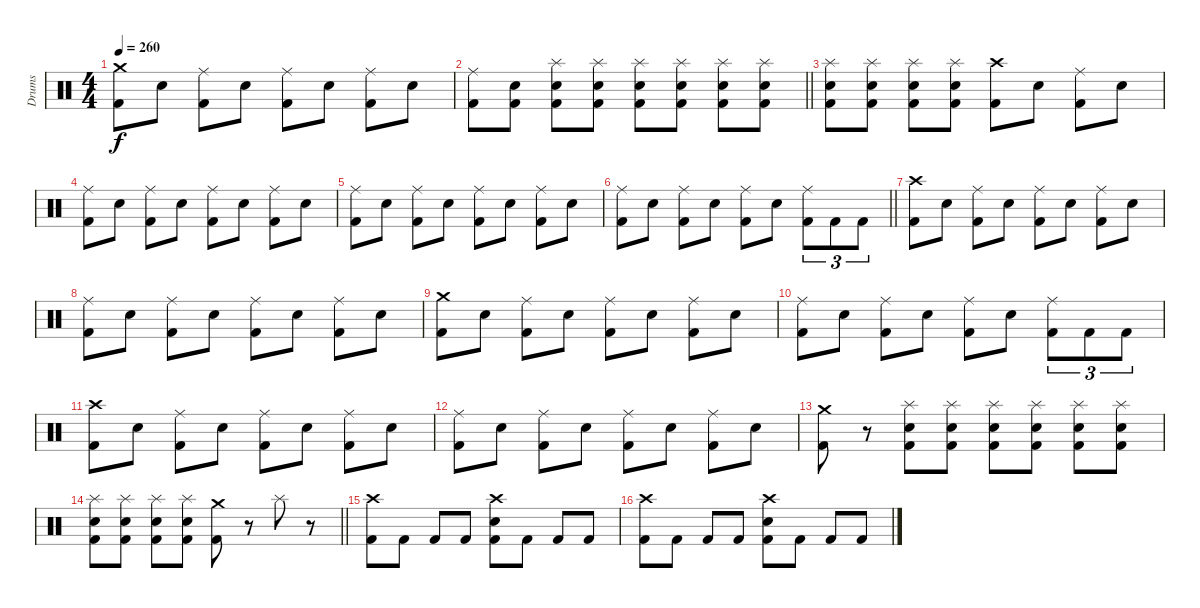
\track ("Drums" "Drums") {instrument percussion}
\staff {score}
\articulation defaults
\ts (4 4)
\tempo 260
\clef neutral
\ks c
("Crash medium (hit)" "Kick (hit) 2").8{dy f} "Electric Snare (hit)".8 ("Ride (middle)" "Kick (hit) 2").8 "Electric Snare (hit)".8 ("Ride (middle)" "Kick (hit) 2").8 "Electric Snare (hit)".8 ("Ride (middle)" "Kick (hit) 2").8 "Electric Snare (hit)".8 |
\barLineRight lightlight
("Ride (middle)" "Kick (hit) 2").8 ("Electric Snare (hit)" "Kick (hit) 2").8 ("Splash (hit)" "Electric Snare (hit)" "Kick (hit) 2").8 ("Splash (hit)" "Electric Snare (hit)" "Kick (hit) 2").8 ("Splash (hit)" "Electric Snare (hit)" "Kick (hit) 2").8 ("Splash (hit)" "Electric Snare (hit)" "Kick (hit) 2").8 ("Splash (hit)" "Electric Snare (hit)" "Kick (hit) 2").8 ("Splash (hit)" "Electric Snare (hit)" "Kick (hit) 2").8 |
("Splash (hit)" "Electric Snare (hit)" "Kick (hit) 2").8 ("Splash (hit)" "Electric Snare (hit)" "Kick (hit) 2").8 ("Splash (hit)" "Electric Snare (hit)" "Kick (hit) 2").8 ("Splash (hit)" "Electric Snare (hit)" "Kick (hit) 2").8 ("Crash high (hit)" "Kick (hit) 2").8 "Electric Snare (hit)".8 ("Ride (middle)" "Kick (hit) 2").8 "Electric Snare (hit)".8 |
("Ride (middle)" "Kick (hit) 2").8 "Electric Snare (hit)".8 ("Ride (middle)" "Kick (hit) 2").8 "Electric Snare (hit)".8 ("Ride (middle)" "Kick (hit) 2").8 "Electric Snare (hit)".8 ("Ride (middle)" "Kick (hit) 2").8 "Electric Snare (hit)".8 |
("Ride (middle)" "Kick (hit) 2").8 "Electric Snare (hit)".8 ("Ride (middle)" "Kick (hit) 2").8 "Electric Snare (hit)".8 ("Ride (middle)" "Kick (hit) 2").8 "Electric Snare (hit)".8 ("Ride (middle)" "Kick (hit) 2").8 "Electric Snare (hit)".8 |
\barLineRight lightlight
("Ride (middle)" "Kick (hit) 2").8 "Electric Snare (hit)".8 ("Ride (middle)" "Kick (hit) 2").8 "Electric Snare (hit)".8 ("Ride (middle)" "Kick (hit) 2").8 "Electric Snare (hit)".8 ("Ride (middle)" "Kick (hit) 2").8{tu (3 2)} "Kick (hit) 2".8{tu (3 2)} "Kick (hit) 2".8{tu (3 2)} |
("Crash high (hit)" "Kick (hit) 2").8 "Electric Snare (hit)".8 ("Ride (middle)" "Kick (hit) 2").8 "Electric Snare (hit)".8 ("Ride (middle)" "Kick (hit) 2").8 "Electric Snare (hit)".8 ("Ride (middle)" "Kick (hit) 2").8 "Electric Snare (hit)".8 |
("Ride (middle)" "Kick (hit) 2").8 "Electric Snare (hit)".8 ("Ride (middle)" "Kick (hit) 2").8 "Electric Snare (hit)".8 ("Ride (middle)" "Kick (hit) 2").8 "Electric Snare (hit)".8 ("Ride (middle)" "Kick (hit) 2").8 "Electric Snare (hit)".8 |
("Crash medium (hit)" "Kick (hit) 2").8 "Electric Snare (hit)".8 ("Ride (middle)" "Kick (hit) 2").8 "Electric Snare (hit)".8 ("Ride (middle)" "Kick (hit) 2").8 "Electric Snare (hit)".8 ("Ride (middle)" "Kick (hit) 2").8 "Electric Snare (hit)".8 |
("Ride (middle)" "Kick (hit) 2").8 "Electric Snare (hit)".8 ("Ride (middle)" "Kick (hit) 2").8 "Electric Snare (hit)".8 ("Ride (middle)" "Kick (hit) 2").8 "Electric Snare (hit)".8 ("Ride (middle)" "Kick (hit) 2").8{tu (3 2)} "Kick (hit) 2".8{tu (3 2)} "Kick (hit) 2".8{tu (3 2)} |
("Crash high (hit)" "Kick (hit) 2").8 "Electric Snare (hit)".8 ("Ride (middle)" "Kick (hit) 2").8 "Electric Snare (hit)".8 ("Ride (middle)" "Kick (hit) 2").8 "Electric Snare (hit)".8 ("Ride (middle)" "Kick (hit) 2").8 "Electric Snare (hit)".8 |
("Ride (middle)" "Kick (hit) 2").8 "Electric Snare (hit)".8 ("Ride (middle)" "Kick (hit) 2").8 "Electric Snare (hit)".8 ("Ride (middle)" "Kick (hit) 2").8 "Electric Snare (hit)".8 ("Ride (middle)" "Kick (hit) 2").8 "Electric Snare (hit)".8 |
("Crash medium (hit)" "Kick (hit) 2").8 r.8 ("Splash (hit)" "Electric Snare (hit)" "Kick (hit) 2").8 ("Splash (hit)" "Electric Snare (hit)" "Kick (hit) 2").8 ("Splash (hit)" "Electric Snare (hit)" "Kick (hit) 2").8 ("Splash (hit)" "Electric Snare (hit)" "Kick (hit) 2").8 ("Splash (hit)" "Electric Snare (hit)" "Kick (hit) 2").8 ("Splash (hit)" "Electric Snare (hit)" "Kick (hit) 2").8 |
\barLineRight lightlight
("Splash (hit)" "Electric Snare (hit)" "Kick (hit) 2").8 ("Splash (hit)" "Electric Snare (hit)" "Kick (hit) 2").8 ("Splash (hit)" "Electric Snare (hit)" "Kick (hit) 2").8 ("Splash (hit)" "Electric Snare (hit)" "Kick (hit) 2").8 ("Crash medium (hit)" "Kick (hit) 2").8 r.8 "Splash (hit)".8 r.8 |
("Crash high (hit)" "Kick (hit) 2").8 "Kick (hit) 2".8 "Kick (hit) 2".8 "Kick (hit) 2".8 ("Crash high (hit)" "Electric Snare (hit)" "Kick (hit) 2").8 "Kick (hit) 2".8 "Kick (hit) 2".8 "Kick (hit) 2".8 |
("Crash high (hit)" "Kick (hit) 2").8 "Kick (hit) 2".8 "Kick (hit) 2".8 "Kick (hit) 2".8 ("Crash high (hit)" "Electric Snare (hit)" "Kick (hit) 2").8 "Kick (hit) 2".8 "Kick (hit) 2".8 "Kick (hit) 2".8
